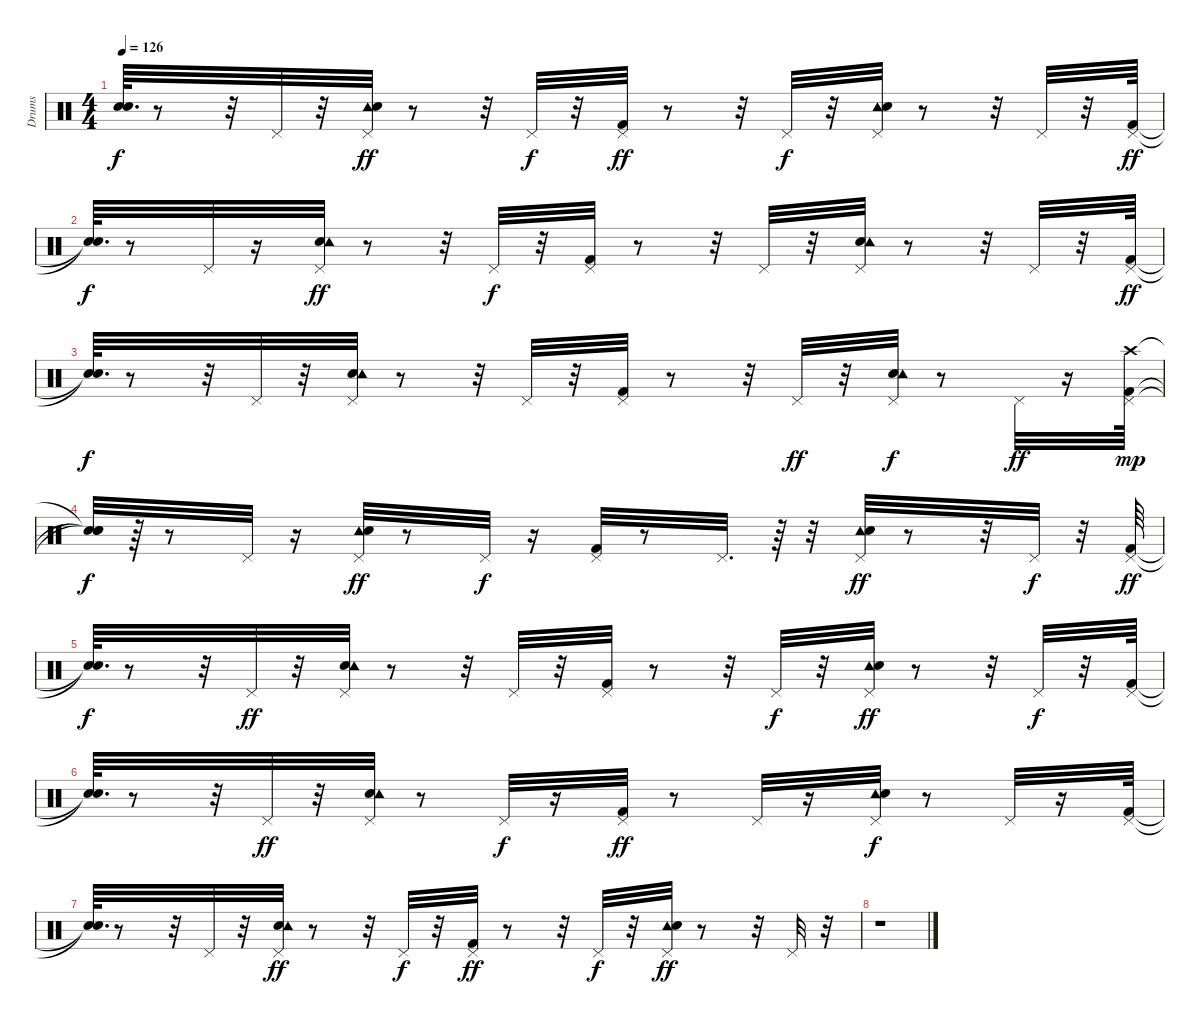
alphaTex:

\track ("Drums" "Drums") {instrument percussion}
\staff {score}
\articulation defaults
\ts (4 4)
\tempo 126
\clef neutral
\ks c
("Snare (hit)"{t} "Snare (hit)"{t}).64{d dy f} r.8 r.32 "Pedal Hi-Hat (hit)".32{volume 9} r.32 ("Tambourine (hit)" "Pedal Hi-Hat (hit)" "Electric Snare (hit)").32{dy ff volume 8} r.8 r.32 "Pedal Hi-Hat (hit)".32{dy f volume 8} r.32 ("Kick (hit) 2" "Pedal Hi-Hat (hit)").32{dy ff} r.8 r.32 "Pedal Hi-Hat (hit)".32{dy f volume 8} r.32 ("Pedal Hi-Hat (hit)" "Tambourine (hit)" "Electric Snare (hit)").32{volume 8} r.8 r.32 "Pedal Hi-Hat (hit)".32{volume 8} r.32 ("Pedal Hi-Hat (hit)" "Kick (hit) 2").64{dy ff} |
("Snare (hit)"{t} "Snare (hit)"{t}).64{d dy f} r.8 "Pedal Hi-Hat (hit)".32{volume 7} r.16 ("Electric Snare (hit)" "Tambourine (hit)" "Pedal Hi-Hat (hit)").32{dy ff volume 7} r.8 r.32 "Pedal Hi-Hat (hit)".32{dy f volume 7} r.32 ("Kick (hit) 2" "Pedal Hi-Hat (hit)").32 r.8 r.32 "Pedal Hi-Hat (hit)".32{volume 7} r.32 ("Pedal Hi-Hat (hit)" "Electric Snare (hit)" "Tambourine (hit)").32{volume 7} r.8 r.32 "Pedal Hi-Hat (hit)".32{volume 6} r.32 ("Kick (hit) 2" "Pedal Hi-Hat (hit)").64{dy ff} |
("Snare (hit)"{t} "Snare (hit)"{t}).64{d dy f} r.8 r.32 "Pedal Hi-Hat (hit)".32{volume 6} r.32 ("Electric Snare (hit)" "Tambourine (hit)" "Pedal Hi-Hat (hit)").32{volume 6} r.8 r.32 "Pedal Hi-Hat (hit)".32{volume 6} r.32 ("Kick (hit) 2" "Pedal Hi-Hat (hit)").32{volume 6} r.8 r.32 "Pedal Hi-Hat (hit)".32{dy ff volume 6} r.32 ("Electric Snare (hit)" "Pedal Hi-Hat (hit)" "Tambourine (hit)").32{dy f volume 5} r.8 "Pedal Hi-Hat (hit)".32{dy ff volume 5} r.16 ("Pedal Hi-Hat (hit)" "Kick (hit) 2" "Crash high (hit)").64{dy mp} |
("Snare (hit)"{t} "Snare (hit)"{t} "Snare (hit)"{t}).32{dy f} r.64 r.8 "Pedal Hi-Hat (hit)".32{volume 5} r.16 ("Pedal Hi-Hat (hit)" "Tambourine (hit)" "Electric Snare (hit)").32{dy ff volume 5} r.8 "Pedal Hi-Hat (hit)".32{dy f volume 4} r.16 ("Pedal Hi-Hat (hit)" "Kick (hit) 2").32{volume 4} r.8 "Pedal Hi-Hat (hit)".32{d volume 4} r.64 r.32 ("Tambourine (hit)" "Pedal Hi-Hat (hit)" "Electric Snare (hit)").32{dy ff volume 4} r.8 r.32 "Pedal Hi-Hat (hit)".32{dy f volume 4} r.32 ("Kick (hit) 2" "Pedal Hi-Hat (hit)").64{dy ff volume 4} |
("Snare (hit)"{t} "Snare (hit)"{t}).64{d dy f} r.8 r.32 "Pedal Hi-Hat (hit)".32{dy ff volume 4} r.32 ("Electric Snare (hit)" "Pedal Hi-Hat (hit)" "Tambourine (hit)").32{volume 4} r.8 r.32 "Pedal Hi-Hat (hit)".32{volume 3} r.32 ("Pedal Hi-Hat (hit)" "Kick (hit) 2").32 r.8 r.32 "Pedal Hi-Hat (hit)".32{dy f volume 3} r.32 ("Pedal Hi-Hat (hit)" "Tambourine (hit)" "Electric Snare (hit)").32{dy ff volume 3} r.8 r.32 "Pedal Hi-Hat (hit)".32{dy f volume 3} r.32 ("Kick (hit) 2" "Pedal Hi-Hat (hit)").64 |
("Snare (hit)"{t} "Snare (hit)"{t}).64{d} r.8 r.32 "Pedal Hi-Hat (hit)".32{dy ff volume 2} r.32 ("Pedal Hi-Hat (hit)" "Electric Snare (hit)" "Tambourine (hit)").32{volume 2} r.8 "Pedal Hi-Hat (hit)".32{dy f volume 2} r.16 ("Pedal Hi-Hat (hit)" "Kick (hit) 2").32{dy ff volume 2} r.8 "Pedal Hi-Hat (hit)".32{volume 2} r.16 ("Pedal Hi-Hat (hit)" "Tambourine (hit)" "Electric Snare (hit)").32{dy f volume 2} r.8 "Pedal Hi-Hat (hit)".32{volume 1} r.16 ("Kick (hit) 2" "Pedal Hi-Hat (hit)").64 |
("Snare (hit)"{t} "Snare (hit)"{t}).64{d} r.8 r.32 "Pedal Hi-Hat (hit)".32{volume 1} r.32 ("Electric Snare (hit)" "Pedal Hi-Hat (hit)" "Tambourine (hit)").32{dy ff volume 1} r.8 r.32 "Pedal Hi-Hat (hit)".32{dy f volume 1} r.32 ("Pedal Hi-Hat (hit)" "Kick (hit) 2").32{dy ff} r.8 r.32 "Pedal Hi-Hat (hit)".32{dy f volume 0} r.32 ("Tambourine (hit)" "Pedal Hi-Hat (hit)" "Electric Snare (hit)").32{dy ff volume 0} r.8 r.32 "Pedal Hi-Hat (hit)".32{volume 0} r.32 |
r.1
